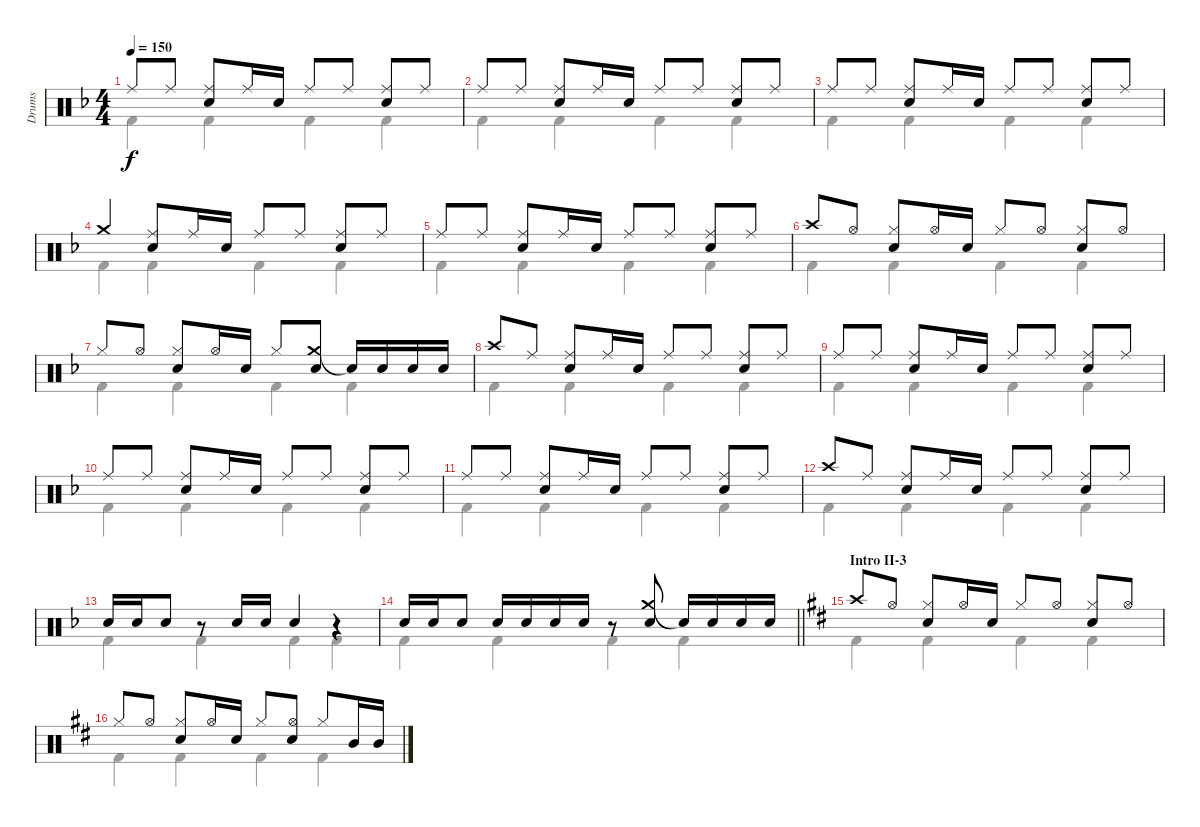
\track ("Drums" "Drums") {instrument percussion}
\staff {score}
\articulation defaults
\voice
\ts (4 4)
\tempo 150
\clef neutral
\ks f "Ride (middle)".8{dy f} "Ride (middle)".8
("Ride (middle)" "Snare (hit) 2").8 "Ride (middle)".16 "Snare (hit) 2".16 "Ride (middle)".8 "Ride (middle)".8 ("Ride (middle)" "Snare (hit) 2").8 "Ride (middle)".8 |
"Ride (middle)".8 "Ride (middle)".8 ("Ride (middle)" "Snare (hit) 2").8 "Ride (middle)".16 "Snare (hit) 2".16 "Ride (middle)".8 "Ride (middle)".8 ("Ride (middle)" "Snare (hit) 2").8 "Ride (middle)".8 |
"Ride (middle)".8 "Ride (middle)".8 ("Ride (middle)" "Snare (hit) 2").8 "Ride (middle)".16 "Snare (hit) 2".16 "Ride (middle)".8 "Ride (middle)".8 ("Ride (middle)" "Snare (hit) 2").8 "Ride (middle)".8 |
"Crash medium (hit)".4 ("Ride (middle)" "Snare (hit) 2").8 "Ride (middle)".16 "Snare (hit) 2".16 "Ride (middle)".8 "Ride (middle)".8 ("Ride (middle)" "Snare (hit) 2").8 "Ride (middle)".8 |
"Ride (middle)".8 "Ride (middle)".8 ("Ride (middle)" "Snare (hit) 2").8 "Ride (middle)".16 "Snare (hit) 2".16 "Ride (middle)".8 "Ride (middle)".8 ("Ride (middle)" "Snare (hit) 2").8 "Ride (middle)".8 |
"Crash high (hit)".8 "Hi-Hat (open)".8 ("Hi-Hat (closed)" "Snare (hit) 2").8 "Hi-Hat (open)".16 "Snare (hit) 2".16 "Hi-Hat (closed)".8 "Hi-Hat (open)".8 ("Hi-Hat (closed)" "Snare (hit) 2").8 "Hi-Hat (open)".8 |
"Hi-Hat (closed)".8 "Hi-Hat (open)".8 ("Hi-Hat (closed)" "Snare (hit) 2").8 "Hi-Hat (open)".16 "Snare (hit) 2".16 "Hi-Hat (closed)".8 ("Crash medium (hit)" "Snare (hit) 2").8 "Snare (hit)"{t}.16 "Snare (hit) 2".16 "Snare (hit) 2".16 "Snare (hit) 2".16 |
"Crash high (hit)".8 "Ride (middle)".8 ("Ride (middle)" "Snare (hit) 2").8 "Ride (middle)".16 "Snare (hit) 2".16 "Ride (middle)".8 "Ride (middle)".8 ("Ride (middle)" "Snare (hit) 2").8 "Ride (middle)".8 |
"Ride (middle)".8 "Ride (middle)".8 ("Ride (middle)" "Snare (hit) 2").8 "Ride (middle)".16 "Snare (hit) 2".16 "Ride (middle)".8 "Ride (middle)".8 ("Ride (middle)" "Snare (hit) 2").8 "Ride (middle)".8 |
"Ride (middle)".8 "Ride (middle)".8 ("Ride (middle)" "Snare (hit) 2").8 "Ride (middle)".16 "Snare (hit) 2".16 "Ride (middle)".8 "Ride (middle)".8 ("Ride (middle)" "Snare (hit) 2").8 "Ride (middle)".8 |
"Ride (middle)".8 "Ride (middle)".8 ("Ride (middle)" "Snare (hit) 2").8 "Ride (middle)".16 "Snare (hit) 2".16 "Ride (middle)".8 "Ride (middle)".8 ("Ride (middle)" "Snare (hit) 2").8 "Ride (middle)".8 |
"Crash high (hit)".8 "Ride (middle)".8 ("Ride (middle)" "Snare (hit) 2").8 "Ride (middle)".16 "Snare (hit) 2".16 "Ride (middle)".8 "Ride (middle)".8 ("Ride (middle)" "Snare (hit) 2").8 "Ride (middle)".8 |
"Snare (hit) 2".16 "Snare (hit) 2".16 "Snare (hit) 2".8 r.8 "Snare (hit) 2".16 "Snare (hit) 2".16 "Snare (hit) 2".4 r.4 |
\barLineRight lightlight "Snare (hit) 2".16 "Snare (hit) 2".16 "Snare (hit) 2".8 "Snare (hit) 2".16 "Snare (hit) 2".16 "Snare (hit) 2".16 "Snare (hit) 2".16
r.8 ("Crash medium (hit)" "Snare (hit) 2").8 "Snare (hit)"{t}.16 "Snare (hit) 2".16 "Snare (hit) 2".16 "Snare (hit) 2".16 |
\section ("" "Intro II-3")
\ks d "Crash high (hit)".8 "Hi-Hat (open)".8
("Hi-Hat (closed)" "Snare (hit) 2").8 "Hi-Hat (open)".16 "Snare (hit) 2".16 "Hi-Hat (closed)".8 "Hi-Hat (open)".8 ("Hi-Hat (closed)" "Snare (hit) 2").8 "Hi-Hat (open)".8 |
"Hi-Hat (closed)".8 "Hi-Hat (open)".8 ("Hi-Hat (closed)" "Snare (hit) 2").8 "Hi-Hat (open)".16 "Snare (hit) 2".16 "Hi-Hat (closed)".8 ("Hi-Hat (open)" "Snare (hit) 2").8 "Hi-Hat (closed)".8 "Mid Tom (hit)".16 "Mid Tom (hit)".16
\voice
\clef neutral
\ottava regular
\simile none
\ks f "Kick (hit) 2".4{dy f} "Kick (hit) 2".4 "Kick (hit) 2".4 "Kick (hit) 2".4
|
"Kick (hit) 2".4 "Kick (hit) 2".4 "Kick (hit) 2".4 "Kick (hit) 2".4 |
"Kick (hit) 2".4 "Kick (hit) 2".4 "Kick (hit) 2".4 "Kick (hit) 2".4 |
"Kick (hit) 2".4 "Kick (hit) 2".4 "Kick (hit) 2".4 "Kick (hit) 2".4 |
"Kick (hit) 2".4 "Kick (hit) 2".4 "Kick (hit) 2".4 "Kick (hit) 2".4 |
"Kick (hit) 2".4 "Kick (hit) 2".4 "Kick (hit) 2".4 "Kick (hit) 2".4 |
"Kick (hit) 2".4 "Kick (hit) 2".4 "Kick (hit) 2".4 "Kick (hit) 2".4 |
"Kick (hit) 2".4 "Kick (hit) 2".4 "Kick (hit) 2".4 "Kick (hit) 2".4 |
"Kick (hit) 2".4 "Kick (hit) 2".4 "Kick (hit) 2".4 "Kick (hit) 2".4 |
"Kick (hit) 2".4 "Kick (hit) 2".4 "Kick (hit) 2".4 "Kick (hit) 2".4 |
"Kick (hit) 2".4 "Kick (hit) 2".4 "Kick (hit) 2".4 "Kick (hit) 2".4 |
"Kick (hit) 2".4 "Kick (hit) 2".4 "Kick (hit) 2".4 "Kick (hit) 2".4 |
"Kick (hit) 2".4 "Kick (hit) 2".4 "Kick (hit) 2".4 "Kick (hit) 2".4 |
\barLineRight lightlight "Kick (hit) 2".4 "Kick (hit) 2".4 "Kick (hit) 2".4 "Kick (hit) 2".4
|
\ks d "Kick (hit) 2".4 "Kick (hit) 2".4 "Kick (hit) 2".4 "Kick (hit) 2".4
|
"Kick (hit) 2".4 "Kick (hit) 2".4 "Kick (hit) 2".4 "Kick (hit) 2".4
